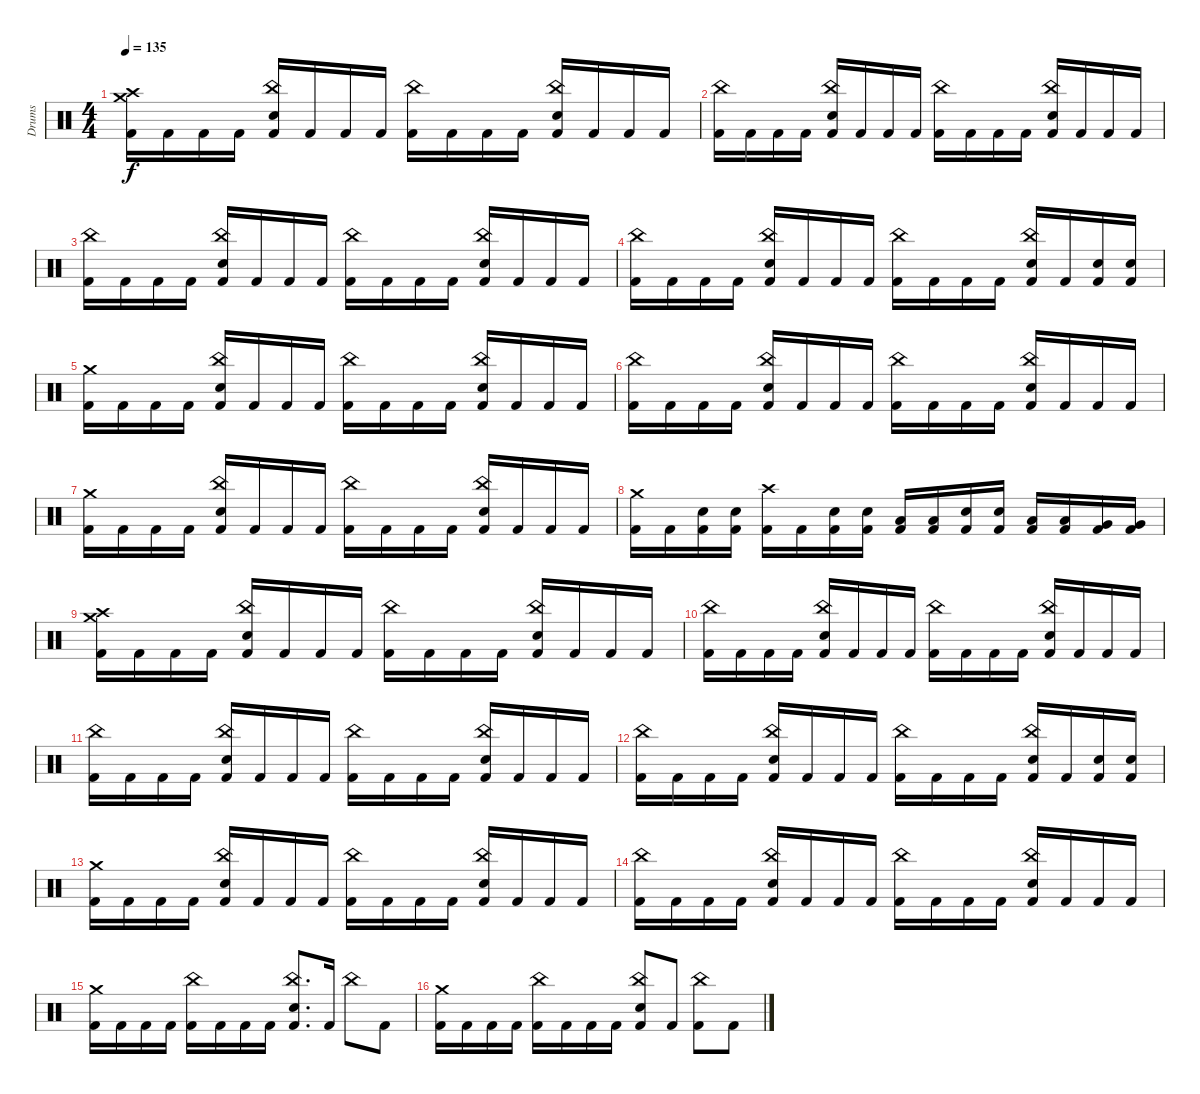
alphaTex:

\track ("Drums" "Drums") {instrument percussion}
\staff {score}
\articulation defaults
\ts (4 4)
\tempo 135
\clef neutral
\ks c
("Crash high (hit)" "Crash medium (hit)" "Kick (hit) 2").16{dy f} "Kick (hit) 2".16 "Kick (hit) 2".16 "Kick (hit) 2".16 ("China (hit)" "Electric Snare (hit)" "Kick (hit) 2").16 "Kick (hit) 2".16 "Kick (hit) 2".16 "Kick (hit) 2".16 ("China (hit)" "Kick (hit) 2").16 "Kick (hit) 2".16 "Kick (hit) 2".16 "Kick (hit) 2".16 ("China (hit)" "Electric Snare (hit)" "Kick (hit) 2").16 "Kick (hit) 2".16 "Kick (hit) 2".16 "Kick (hit) 2".16 |
("China (hit)" "Kick (hit) 2").16 "Kick (hit) 2".16 "Kick (hit) 2".16 "Kick (hit) 2".16 ("China (hit)" "Electric Snare (hit)" "Kick (hit) 2").16 "Kick (hit) 2".16 "Kick (hit) 2".16 "Kick (hit) 2".16 ("China (hit)" "Kick (hit) 2").16 "Kick (hit) 2".16 "Kick (hit) 2".16 "Kick (hit) 2".16 ("China (hit)" "Electric Snare (hit)" "Kick (hit) 2").16 "Kick (hit) 2".16 "Kick (hit) 2".16 "Kick (hit) 2".16 |
("China (hit)" "Kick (hit) 2").16 "Kick (hit) 2".16 "Kick (hit) 2".16 "Kick (hit) 2".16 ("China (hit)" "Electric Snare (hit)" "Kick (hit) 2").16 "Kick (hit) 2".16 "Kick (hit) 2".16 "Kick (hit) 2".16 ("China (hit)" "Kick (hit) 2").16 "Kick (hit) 2".16 "Kick (hit) 2".16 "Kick (hit) 2".16 ("China (hit)" "Electric Snare (hit)" "Kick (hit) 2").16 "Kick (hit) 2".16 "Kick (hit) 2".16 "Kick (hit) 2".16 |
("China (hit)" "Kick (hit) 2").16 "Kick (hit) 2".16 "Kick (hit) 2".16 "Kick (hit) 2".16 ("China (hit)" "Electric Snare (hit)" "Kick (hit) 2").16 "Kick (hit) 2".16 "Kick (hit) 2".16 "Kick (hit) 2".16 ("China (hit)" "Kick (hit) 2").16 "Kick (hit) 2".16 "Kick (hit) 2".16 "Kick (hit) 2".16 ("China (hit)" "Electric Snare (hit)" "Kick (hit) 2").16 "Kick (hit) 2".16 ("Electric Snare (hit)" "Kick (hit) 2").16 ("Electric Snare (hit)" "Kick (hit) 2").16 |
("Crash medium (hit)" "Kick (hit) 2").16 "Kick (hit) 2".16 "Kick (hit) 2".16 "Kick (hit) 2".16 ("China (hit)" "Electric Snare (hit)" "Kick (hit) 2").16 "Kick (hit) 2".16 "Kick (hit) 2".16 "Kick (hit) 2".16 ("China (hit)" "Kick (hit) 2").16 "Kick (hit) 2".16 "Kick (hit) 2".16 "Kick (hit) 2".16 ("China (hit)" "Electric Snare (hit)" "Kick (hit) 2").16 "Kick (hit) 2".16 "Kick (hit) 2".16 "Kick (hit) 2".16 |
("China (hit)" "Kick (hit) 2").16 "Kick (hit) 2".16 "Kick (hit) 2".16 "Kick (hit) 2".16 ("China (hit)" "Electric Snare (hit)" "Kick (hit) 2").16 "Kick (hit) 2".16 "Kick (hit) 2".16 "Kick (hit) 2".16 ("China (hit)" "Kick (hit) 2").16 "Kick (hit) 2".16 "Kick (hit) 2".16 "Kick (hit) 2".16 ("China (hit)" "Electric Snare (hit)" "Kick (hit) 2").16 "Kick (hit) 2".16 "Kick (hit) 2".16 "Kick (hit) 2".16 |
("Crash medium (hit)" "Kick (hit) 2").16 "Kick (hit) 2".16 "Kick (hit) 2".16 "Kick (hit) 2".16 ("China (hit)" "Electric Snare (hit)" "Kick (hit) 2").16 "Kick (hit) 2".16 "Kick (hit) 2".16 "Kick (hit) 2".16 ("China (hit)" "Kick (hit) 2").16 "Kick (hit) 2".16 "Kick (hit) 2".16 "Kick (hit) 2".16 ("China (hit)" "Electric Snare (hit)" "Kick (hit) 2").16 "Kick (hit) 2".16 "Kick (hit) 2".16 "Kick (hit) 2".16 |
("Crash medium (hit)" "Kick (hit) 2").16 "Kick (hit) 2".16 ("Electric Snare (hit)" "Kick (hit) 2").16 ("Electric Snare (hit)" "Kick (hit) 2").16 ("Crash high (hit)" "Kick (hit) 2").16 "Kick (hit) 2".16 ("Electric Snare (hit)" "Kick (hit) 2").16 ("Electric Snare (hit)" "Kick (hit) 2").16 ("Low Tom (hit)" "Kick (hit) 2").16 ("Low Tom (hit)" "Kick (hit) 2").16 ("Electric Snare (hit)" "Kick (hit) 2").16 ("Electric Snare (hit)" "Kick (hit) 2").16 ("Low Tom (hit)" "Kick (hit) 2").16 ("Low Tom (hit)" "Kick (hit) 2").16 ("Very Low Tom (hit)" "Kick (hit) 2").16 ("Very Low Tom (hit)" "Kick (hit) 2").16 |
("Crash high (hit)" "Crash medium (hit)" "Kick (hit) 2").16 "Kick (hit) 2".16 "Kick (hit) 2".16 "Kick (hit) 2".16 ("China (hit)" "Electric Snare (hit)" "Kick (hit) 2").16 "Kick (hit) 2".16 "Kick (hit) 2".16 "Kick (hit) 2".16 ("China (hit)" "Kick (hit) 2").16 "Kick (hit) 2".16 "Kick (hit) 2".16 "Kick (hit) 2".16 ("China (hit)" "Electric Snare (hit)" "Kick (hit) 2").16 "Kick (hit) 2".16 "Kick (hit) 2".16 "Kick (hit) 2".16 |
("China (hit)" "Kick (hit) 2").16 "Kick (hit) 2".16 "Kick (hit) 2".16 "Kick (hit) 2".16 ("China (hit)" "Electric Snare (hit)" "Kick (hit) 2").16 "Kick (hit) 2".16 "Kick (hit) 2".16 "Kick (hit) 2".16 ("China (hit)" "Kick (hit) 2").16 "Kick (hit) 2".16 "Kick (hit) 2".16 "Kick (hit) 2".16 ("China (hit)" "Electric Snare (hit)" "Kick (hit) 2").16 "Kick (hit) 2".16 "Kick (hit) 2".16 "Kick (hit) 2".16 |
("China (hit)" "Kick (hit) 2").16 "Kick (hit) 2".16 "Kick (hit) 2".16 "Kick (hit) 2".16 ("China (hit)" "Electric Snare (hit)" "Kick (hit) 2").16 "Kick (hit) 2".16 "Kick (hit) 2".16 "Kick (hit) 2".16 ("China (hit)" "Kick (hit) 2").16 "Kick (hit) 2".16 "Kick (hit) 2".16 "Kick (hit) 2".16 ("China (hit)" "Electric Snare (hit)" "Kick (hit) 2").16 "Kick (hit) 2".16 "Kick (hit) 2".16 "Kick (hit) 2".16 |
("China (hit)" "Kick (hit) 2").16 "Kick (hit) 2".16 "Kick (hit) 2".16 "Kick (hit) 2".16 ("China (hit)" "Electric Snare (hit)" "Kick (hit) 2").16 "Kick (hit) 2".16 "Kick (hit) 2".16 "Kick (hit) 2".16 ("China (hit)" "Kick (hit) 2").16 "Kick (hit) 2".16 "Kick (hit) 2".16 "Kick (hit) 2".16 ("China (hit)" "Electric Snare (hit)" "Kick (hit) 2").16 "Kick (hit) 2".16 ("Electric Snare (hit)" "Kick (hit) 2").16 ("Electric Snare (hit)" "Kick (hit) 2").16 |
("Crash medium (hit)" "Kick (hit) 2").16 "Kick (hit) 2".16 "Kick (hit) 2".16 "Kick (hit) 2".16 ("China (hit)" "Electric Snare (hit)" "Kick (hit) 2").16 "Kick (hit) 2".16 "Kick (hit) 2".16 "Kick (hit) 2".16 ("China (hit)" "Kick (hit) 2").16 "Kick (hit) 2".16 "Kick (hit) 2".16 "Kick (hit) 2".16 ("China (hit)" "Electric Snare (hit)" "Kick (hit) 2").16 "Kick (hit) 2".16 "Kick (hit) 2".16 "Kick (hit) 2".16 |
("China (hit)" "Kick (hit) 2").16 "Kick (hit) 2".16 "Kick (hit) 2".16 "Kick (hit) 2".16 ("China (hit)" "Electric Snare (hit)" "Kick (hit) 2").16 "Kick (hit) 2".16 "Kick (hit) 2".16 "Kick (hit) 2".16 ("China (hit)" "Kick (hit) 2").16 "Kick (hit) 2".16 "Kick (hit) 2".16 "Kick (hit) 2".16 ("China (hit)" "Electric Snare (hit)" "Kick (hit) 2").16 "Kick (hit) 2".16 "Kick (hit) 2".16 "Kick (hit) 2".16 |
("Crash medium (hit)" "Kick (hit) 2").16 "Kick (hit) 2".16 "Kick (hit) 2".16 "Kick (hit) 2".16 ("China (hit)" "Kick (hit) 2").16 "Kick (hit) 2".16 "Kick (hit) 2".16 "Kick (hit) 2".16 ("China (hit)" "Electric Snare (hit)" "Kick (hit) 2").8{d} "Kick (hit) 2".16 "China (hit)".8 "Kick (hit) 2".8 |
("Crash medium (hit)" "Kick (hit) 2").16 "Kick (hit) 2".16 "Kick (hit) 2".16 "Kick (hit) 2".16 ("China (hit)" "Kick (hit) 2").16 "Kick (hit) 2".16 "Kick (hit) 2".16 "Kick (hit) 2".16 ("China (hit)" "Electric Snare (hit)" "Kick (hit) 2").8 "Kick (hit) 2".8 ("China (hit)" "Kick (hit) 2").8 "Kick (hit) 2".8
